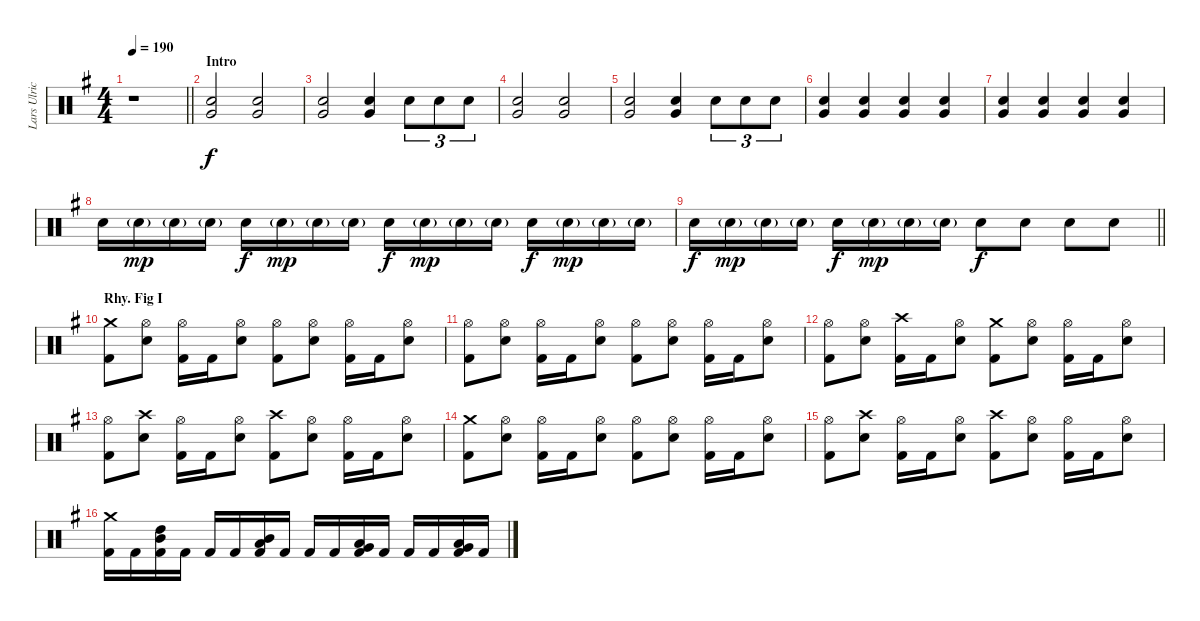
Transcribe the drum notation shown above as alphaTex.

\track ("Lars Ulrich - Drums" "Lars Ulric") {instrument percussion}
\staff {score}
\articulation defaults
\ts (4 4)
\tempo 190
\clef neutral
\barLineRight lightlight
\ks eminor
r.1{dy f} |
\section ("" "Intro")
("Very Low Tom (hit)" "Electric Snare (hit)").2 ("Very Low Tom (hit)" "Electric Snare (hit)").2 |
("Very Low Tom (hit)" "Electric Snare (hit)").2 ("Very Low Tom (hit)" "Electric Snare (hit)").4 "Electric Snare (hit)".8{tu (3 2)} "Electric Snare (hit)".8{tu (3 2)} "Electric Snare (hit)".8{tu (3 2)} |
("Very Low Tom (hit)" "Electric Snare (hit)").2 ("Very Low Tom (hit)" "Electric Snare (hit)").2 |
("Very Low Tom (hit)" "Electric Snare (hit)").2 ("Very Low Tom (hit)" "Electric Snare (hit)").4 "Electric Snare (hit)".8{tu (3 2)} "Electric Snare (hit)".8{tu (3 2)} "Electric Snare (hit)".8{tu (3 2)} |
("Very Low Tom (hit)" "Electric Snare (hit)").4 ("Very Low Tom (hit)" "Electric Snare (hit)").4 ("Very Low Tom (hit)" "Electric Snare (hit)").4 ("Very Low Tom (hit)" "Electric Snare (hit)").4 |
("Very Low Tom (hit)" "Electric Snare (hit)").4 ("Very Low Tom (hit)" "Electric Snare (hit)").4 ("Very Low Tom (hit)" "Electric Snare (hit)").4 ("Very Low Tom (hit)" "Electric Snare (hit)").4 |
"Snare (hit) 2".16 "Snare (hit) 2"{g}.16{dy mp} "Snare (hit) 2"{g}.16 "Snare (hit) 2"{g}.16 "Snare (hit) 2".16{dy f} "Snare (hit) 2"{g}.16{dy mp} "Snare (hit) 2"{g}.16 "Snare (hit) 2"{g}.16 "Snare (hit) 2".16{dy f} "Snare (hit) 2"{g}.16{dy mp} "Snare (hit) 2"{g}.16 "Snare (hit) 2"{g}.16 "Snare (hit) 2".16{dy f} "Snare (hit) 2"{g}.16{dy mp} "Snare (hit) 2"{g}.16 "Snare (hit) 2"{g}.16 |
\barLineRight lightlight "Snare (hit) 2".16{dy f} "Snare (hit) 2"{g}.16{dy mp} "Snare (hit) 2"{g}.16 "Snare (hit) 2"{g}.16 "Snare (hit) 2".16{dy f} "Snare (hit) 2"{g}.16{dy mp} "Snare (hit) 2"{g}.16 "Snare (hit) 2"{g}.16 "Snare (hit) 2".8{dy f} "Snare (hit) 2".8 "Snare (hit) 2".8 "Snare (hit) 2".8
|
\section ("" "Rhy. Fig I")
("Crash medium (hit)" "Kick (hit) 2").8 ("Hi-Hat (open)" "Snare (hit) 2").8 ("Hi-Hat (open)" "Kick (hit) 2").16 "Kick (hit) 2".16 ("Hi-Hat (open)" "Snare (hit) 2").8 ("Hi-Hat (open)" "Kick (hit) 2").8 ("Hi-Hat (open)" "Snare (hit) 2").8 ("Hi-Hat (open)" "Kick (hit) 2").16 "Kick (hit) 2".16 ("Hi-Hat (open)" "Snare (hit) 2").8 |
("Hi-Hat (open)" "Kick (hit) 2").8 ("Hi-Hat (open)" "Snare (hit) 2").8 ("Hi-Hat (open)" "Kick (hit) 2").16 "Kick (hit) 2".16 ("Hi-Hat (open)" "Snare (hit) 2").8 ("Hi-Hat (open)" "Kick (hit) 2").8 ("Hi-Hat (open)" "Snare (hit) 2").8 ("Hi-Hat (open)" "Kick (hit) 2").16 "Kick (hit) 2".16 ("Hi-Hat (open)" "Snare (hit) 2").8 |
("Hi-Hat (open)" "Kick (hit) 2").8 ("Hi-Hat (open)" "Snare (hit) 2").8 ("Crash high (hit)" "Kick (hit) 2").16 "Kick (hit) 2".16 ("Hi-Hat (open)" "Snare (hit) 2").8 ("Crash medium (hit)" "Kick (hit) 2").8 ("Hi-Hat (open)" "Snare (hit) 2").8 ("Hi-Hat (open)" "Kick (hit) 2").16 "Kick (hit) 2".16 ("Hi-Hat (open)" "Snare (hit) 2").8 |
("Hi-Hat (open)" "Kick (hit) 2").8 ("Crash high (hit)" "Snare (hit) 2").8 ("Hi-Hat (open)" "Kick (hit) 2").16 "Kick (hit) 2".16 ("Hi-Hat (open)" "Snare (hit) 2").8 ("Crash high (hit)" "Kick (hit) 2").8 ("Hi-Hat (open)" "Snare (hit) 2").8 ("Hi-Hat (open)" "Kick (hit) 2").16 "Kick (hit) 2".16 ("Hi-Hat (open)" "Snare (hit) 2").8 |
("Crash medium (hit)" "Kick (hit) 2").8 ("Hi-Hat (open)" "Snare (hit) 2").8 ("Hi-Hat (open)" "Kick (hit) 2").16 "Kick (hit) 2".16 ("Hi-Hat (open)" "Snare (hit) 2").8 ("Hi-Hat (open)" "Kick (hit) 2").8 ("Hi-Hat (open)" "Snare (hit) 2").8 ("Hi-Hat (open)" "Kick (hit) 2").16 "Kick (hit) 2".16 ("Hi-Hat (open)" "Snare (hit) 2").8 |
("Hi-Hat (open)" "Kick (hit) 2").8 ("Crash high (hit)" "Snare (hit) 2").8 ("Hi-Hat (open)" "Kick (hit) 2").16 "Kick (hit) 2".16 ("Hi-Hat (open)" "Snare (hit) 2").8 ("Crash high (hit)" "Kick (hit) 2").8 ("Hi-Hat (open)" "Snare (hit) 2").8 ("Hi-Hat (open)" "Kick (hit) 2").16 "Kick (hit) 2".16 ("Hi-Hat (open)" "Snare (hit) 2").8 |
("Crash medium (hit)" "Kick (hit) 2").16 "Kick (hit) 2".16 ("High Tom (hit)" "Mid Tom (hit)" "Kick (hit) 2").16 "Kick (hit) 2".16 "Kick (hit) 2".16 "Kick (hit) 2".16 ("Mid Tom (hit)" "Low Tom (hit)" "Kick (hit) 2").16 "Kick (hit) 2".16 "Kick (hit) 2".16 "Kick (hit) 2".16 ("Low Tom (hit)" "Very Low Tom (hit)" "Kick (hit) 2").16 "Kick (hit) 2".16 "Kick (hit) 2".16 "Kick (hit) 2".16 ("Very Low Tom (hit)" "Low Floor Tom (hit)" "Kick (hit) 2").16 "Kick (hit) 2".16
